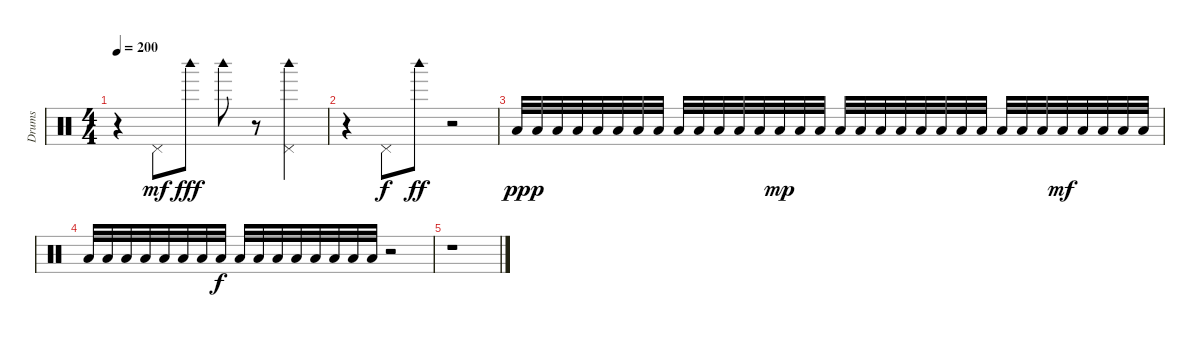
\track ("Drums" "Drums") {instrument percussion}
\staff {score}
\articulation defaults
\ts (4 4)
\tempo 200
\clef neutral
\ks c
r.4{dy mf} "Pedal Hi-Hat (hit)".8 "Woodblock high (hit)".8{dy fff} "Woodblock high (hit)".8 r.8 ("Pedal Hi-Hat (hit)" "Woodblock high (hit)").4 |
r.4 "Pedal Hi-Hat (hit)".8{dy f} "Woodblock high (hit)".8{dy ff} r.2 |
"Low Floor Tom (hit)".32{dy pp} "Low Floor Tom (hit)".32{dy p} "Low Floor Tom (hit)".32 "Low Floor Tom (hit)".32 "Low Floor Tom (hit)".32 "Low Floor Tom (hit)".32 "Low Floor Tom (hit)".32 "Low Floor Tom (hit)".32 "Low Floor Tom (hit)".32 "Low Floor Tom (hit)".32 "Low Floor Tom (hit)".32 "Low Floor Tom (hit)".32 "Low Floor Tom (hit)".32 "Low Floor Tom (hit)".32{dy mp} "Low Floor Tom (hit)".32 "Low Floor Tom (hit)".32 "Low Floor Tom (hit)".32 "Low Floor Tom (hit)".32 "Low Floor Tom (hit)".32 "Low Floor Tom (hit)".32 "Low Floor Tom (hit)".32 "Low Floor Tom (hit)".32 "Low Floor Tom (hit)".32 "Low Floor Tom (hit)".32 "Low Floor Tom (hit)".32 "Low Floor Tom (hit)".32 "Low Floor Tom (hit)".32 "Low Floor Tom (hit)".32{dy mf} "Low Floor Tom (hit)".32 "Low Floor Tom (hit)".32 "Low Floor Tom (hit)".32 "Low Floor Tom (hit)".32 |
"Low Floor Tom (hit)".32 "Low Floor Tom (hit)".32 "Low Floor Tom (hit)".32 "Low Floor Tom (hit)".32 "Low Floor Tom (hit)".32 "Low Floor Tom (hit)".32 "Low Floor Tom (hit)".32 "Low Floor Tom (hit)".32{dy f} "Low Floor Tom (hit)".32 "Low Floor Tom (hit)".32 "Low Floor Tom (hit)".32 "Low Floor Tom (hit)".32 "Low Floor Tom (hit)".32 "Low Floor Tom (hit)".32 "Low Floor Tom (hit)".32 "Low Floor Tom (hit)".32 r.2 |
r.1
